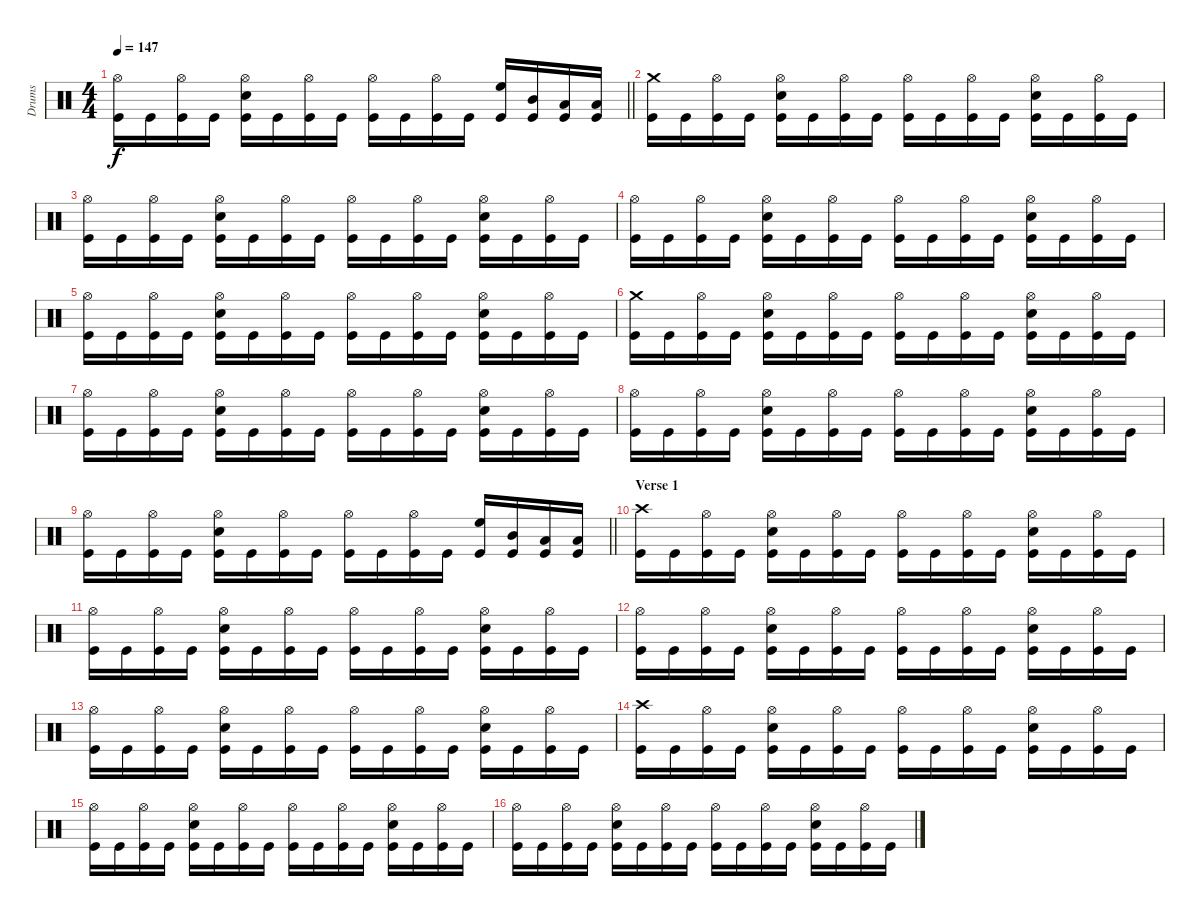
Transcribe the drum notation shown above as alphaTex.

\track ("Drums" "Drums") {instrument percussion}
\staff {score}
\articulation defaults
\ts (4 4)
\tempo 147
\clef neutral
\barLineRight lightlight
\ks c
("Hi-Hat (open)" "Kick (hit)").16{dy f} "Kick (hit)".16 ("Hi-Hat (open)" "Kick (hit)").16 "Kick (hit)".16 ("Electric Snare (hit)" "Hi-Hat (open)" "Kick (hit)").16 "Kick (hit)".16 ("Hi-Hat (open)" "Kick (hit)").16 "Kick (hit)".16 ("Hi-Hat (open)" "Kick (hit)").16 "Kick (hit)".16 ("Hi-Hat (open)" "Kick (hit)").16 "Kick (hit)".16 ("High Floor Tom (hit)" "Kick (hit)").16 ("Mid Tom (hit)" "Kick (hit)").16 ("Low Tom (hit)" "Kick (hit)").16 ("Low Floor Tom (hit)" "Kick (hit)").16 |
("Crash medium (hit)" "Kick (hit)").16 "Kick (hit)".16 ("Hi-Hat (open)" "Kick (hit)").16 "Kick (hit)".16 ("Electric Snare (hit)" "Hi-Hat (open)" "Kick (hit)").16 "Kick (hit)".16 ("Hi-Hat (open)" "Kick (hit)").16 "Kick (hit)".16 ("Hi-Hat (open)" "Kick (hit)").16 "Kick (hit)".16 ("Hi-Hat (open)" "Kick (hit)").16 "Kick (hit)".16 ("Electric Snare (hit)" "Hi-Hat (open)" "Kick (hit)").16 "Kick (hit)".16 ("Hi-Hat (open)" "Kick (hit)").16 "Kick (hit)".16 |
("Hi-Hat (open)" "Kick (hit)").16 "Kick (hit)".16 ("Hi-Hat (open)" "Kick (hit)").16 "Kick (hit)".16 ("Electric Snare (hit)" "Hi-Hat (open)" "Kick (hit)").16 "Kick (hit)".16 ("Hi-Hat (open)" "Kick (hit)").16 "Kick (hit)".16 ("Hi-Hat (open)" "Kick (hit)").16 "Kick (hit)".16 ("Hi-Hat (open)" "Kick (hit)").16 "Kick (hit)".16 ("Electric Snare (hit)" "Hi-Hat (open)" "Kick (hit)").16 "Kick (hit)".16 ("Hi-Hat (open)" "Kick (hit)").16 "Kick (hit)".16 |
("Hi-Hat (open)" "Kick (hit)").16 "Kick (hit)".16 ("Hi-Hat (open)" "Kick (hit)").16 "Kick (hit)".16 ("Electric Snare (hit)" "Hi-Hat (open)" "Kick (hit)").16 "Kick (hit)".16 ("Hi-Hat (open)" "Kick (hit)").16 "Kick (hit)".16 ("Hi-Hat (open)" "Kick (hit)").16 "Kick (hit)".16 ("Hi-Hat (open)" "Kick (hit)").16 "Kick (hit)".16 ("Electric Snare (hit)" "Hi-Hat (open)" "Kick (hit)").16 "Kick (hit)".16 ("Hi-Hat (open)" "Kick (hit)").16 "Kick (hit)".16 |
("Hi-Hat (open)" "Kick (hit)").16 "Kick (hit)".16 ("Hi-Hat (open)" "Kick (hit)").16 "Kick (hit)".16 ("Electric Snare (hit)" "Hi-Hat (open)" "Kick (hit)").16 "Kick (hit)".16 ("Hi-Hat (open)" "Kick (hit)").16 "Kick (hit)".16 ("Hi-Hat (open)" "Kick (hit)").16 "Kick (hit)".16 ("Hi-Hat (open)" "Kick (hit)").16 "Kick (hit)".16 ("Electric Snare (hit)" "Hi-Hat (open)" "Kick (hit)").16 "Kick (hit)".16 ("Hi-Hat (open)" "Kick (hit)").16 "Kick (hit)".16 |
("Crash medium (hit)" "Kick (hit)").16 "Kick (hit)".16 ("Hi-Hat (open)" "Kick (hit)").16 "Kick (hit)".16 ("Electric Snare (hit)" "Hi-Hat (open)" "Kick (hit)").16 "Kick (hit)".16 ("Hi-Hat (open)" "Kick (hit)").16 "Kick (hit)".16 ("Hi-Hat (open)" "Kick (hit)").16 "Kick (hit)".16 ("Hi-Hat (open)" "Kick (hit)").16 "Kick (hit)".16 ("Electric Snare (hit)" "Hi-Hat (open)" "Kick (hit)").16 "Kick (hit)".16 ("Hi-Hat (open)" "Kick (hit)").16 "Kick (hit)".16 |
("Hi-Hat (open)" "Kick (hit)").16 "Kick (hit)".16 ("Hi-Hat (open)" "Kick (hit)").16 "Kick (hit)".16 ("Electric Snare (hit)" "Hi-Hat (open)" "Kick (hit)").16 "Kick (hit)".16 ("Hi-Hat (open)" "Kick (hit)").16 "Kick (hit)".16 ("Hi-Hat (open)" "Kick (hit)").16 "Kick (hit)".16 ("Hi-Hat (open)" "Kick (hit)").16 "Kick (hit)".16 ("Electric Snare (hit)" "Hi-Hat (open)" "Kick (hit)").16 "Kick (hit)".16 ("Hi-Hat (open)" "Kick (hit)").16 "Kick (hit)".16 |
("Hi-Hat (open)" "Kick (hit)").16 "Kick (hit)".16 ("Hi-Hat (open)" "Kick (hit)").16 "Kick (hit)".16 ("Electric Snare (hit)" "Hi-Hat (open)" "Kick (hit)").16 "Kick (hit)".16 ("Hi-Hat (open)" "Kick (hit)").16 "Kick (hit)".16 ("Hi-Hat (open)" "Kick (hit)").16 "Kick (hit)".16 ("Hi-Hat (open)" "Kick (hit)").16 "Kick (hit)".16 ("Electric Snare (hit)" "Hi-Hat (open)" "Kick (hit)").16 "Kick (hit)".16 ("Hi-Hat (open)" "Kick (hit)").16 "Kick (hit)".16 |
\barLineRight lightlight
("Hi-Hat (open)" "Kick (hit)").16 "Kick (hit)".16 ("Hi-Hat (open)" "Kick (hit)").16 "Kick (hit)".16 ("Electric Snare (hit)" "Hi-Hat (open)" "Kick (hit)").16 "Kick (hit)".16 ("Hi-Hat (open)" "Kick (hit)").16 "Kick (hit)".16 ("Hi-Hat (open)" "Kick (hit)").16 "Kick (hit)".16 ("Hi-Hat (open)" "Kick (hit)").16 "Kick (hit)".16 ("High Floor Tom (hit)" "Kick (hit)").16 ("Mid Tom (hit)" "Kick (hit)").16 ("Low Tom (hit)" "Kick (hit)").16 ("Low Floor Tom (hit)" "Kick (hit)").16 |
\section ("" "Verse 1")
("Crash high (hit)" "Kick (hit)").16 "Kick (hit)".16 ("Hi-Hat (open)" "Kick (hit)").16 "Kick (hit)".16 ("Electric Snare (hit)" "Hi-Hat (open)" "Kick (hit)").16 "Kick (hit)".16 ("Hi-Hat (open)" "Kick (hit)").16 "Kick (hit)".16 ("Hi-Hat (open)" "Kick (hit)").16 "Kick (hit)".16 ("Hi-Hat (open)" "Kick (hit)").16 "Kick (hit)".16 ("Electric Snare (hit)" "Hi-Hat (open)" "Kick (hit)").16 "Kick (hit)".16 ("Hi-Hat (open)" "Kick (hit)").16 "Kick (hit)".16 |
("Hi-Hat (open)" "Kick (hit)").16 "Kick (hit)".16 ("Hi-Hat (open)" "Kick (hit)").16 "Kick (hit)".16 ("Electric Snare (hit)" "Hi-Hat (open)" "Kick (hit)").16 "Kick (hit)".16 ("Hi-Hat (open)" "Kick (hit)").16 "Kick (hit)".16 ("Hi-Hat (open)" "Kick (hit)").16 "Kick (hit)".16 ("Hi-Hat (open)" "Kick (hit)").16 "Kick (hit)".16 ("Electric Snare (hit)" "Hi-Hat (open)" "Kick (hit)").16 "Kick (hit)".16 ("Hi-Hat (open)" "Kick (hit)").16 "Kick (hit)".16 |
("Hi-Hat (open)" "Kick (hit)").16 "Kick (hit)".16 ("Hi-Hat (open)" "Kick (hit)").16 "Kick (hit)".16 ("Electric Snare (hit)" "Hi-Hat (open)" "Kick (hit)").16 "Kick (hit)".16 ("Hi-Hat (open)" "Kick (hit)").16 "Kick (hit)".16 ("Hi-Hat (open)" "Kick (hit)").16 "Kick (hit)".16 ("Hi-Hat (open)" "Kick (hit)").16 "Kick (hit)".16 ("Electric Snare (hit)" "Hi-Hat (open)" "Kick (hit)").16 "Kick (hit)".16 ("Hi-Hat (open)" "Kick (hit)").16 "Kick (hit)".16 |
("Hi-Hat (open)" "Kick (hit)").16 "Kick (hit)".16 ("Hi-Hat (open)" "Kick (hit)").16 "Kick (hit)".16 ("Electric Snare (hit)" "Hi-Hat (open)" "Kick (hit)").16 "Kick (hit)".16 ("Hi-Hat (open)" "Kick (hit)").16 "Kick (hit)".16 ("Hi-Hat (open)" "Kick (hit)").16 "Kick (hit)".16 ("Hi-Hat (open)" "Kick (hit)").16 "Kick (hit)".16 ("Electric Snare (hit)" "Hi-Hat (open)" "Kick (hit)").16 "Kick (hit)".16 ("Hi-Hat (open)" "Kick (hit)").16 "Kick (hit)".16 |
("Crash high (hit)" "Kick (hit)").16 "Kick (hit)".16 ("Hi-Hat (open)" "Kick (hit)").16 "Kick (hit)".16 ("Electric Snare (hit)" "Hi-Hat (open)" "Kick (hit)").16 "Kick (hit)".16 ("Hi-Hat (open)" "Kick (hit)").16 "Kick (hit)".16 ("Hi-Hat (open)" "Kick (hit)").16 "Kick (hit)".16 ("Hi-Hat (open)" "Kick (hit)").16 "Kick (hit)".16 ("Electric Snare (hit)" "Hi-Hat (open)" "Kick (hit)").16 "Kick (hit)".16 ("Hi-Hat (open)" "Kick (hit)").16 "Kick (hit)".16 |
("Hi-Hat (open)" "Kick (hit)").16 "Kick (hit)".16 ("Hi-Hat (open)" "Kick (hit)").16 "Kick (hit)".16 ("Electric Snare (hit)" "Hi-Hat (open)" "Kick (hit)").16 "Kick (hit)".16 ("Hi-Hat (open)" "Kick (hit)").16 "Kick (hit)".16 ("Hi-Hat (open)" "Kick (hit)").16 "Kick (hit)".16 ("Hi-Hat (open)" "Kick (hit)").16 "Kick (hit)".16 ("Electric Snare (hit)" "Hi-Hat (open)" "Kick (hit)").16 "Kick (hit)".16 ("Hi-Hat (open)" "Kick (hit)").16 "Kick (hit)".16 |
("Hi-Hat (open)" "Kick (hit)").16 "Kick (hit)".16 ("Hi-Hat (open)" "Kick (hit)").16 "Kick (hit)".16 ("Electric Snare (hit)" "Hi-Hat (open)" "Kick (hit)").16 "Kick (hit)".16 ("Hi-Hat (open)" "Kick (hit)").16 "Kick (hit)".16 ("Hi-Hat (open)" "Kick (hit)").16 "Kick (hit)".16 ("Hi-Hat (open)" "Kick (hit)").16 "Kick (hit)".16 ("Electric Snare (hit)" "Hi-Hat (open)" "Kick (hit)").16 "Kick (hit)".16 ("Hi-Hat (open)" "Kick (hit)").16 "Kick (hit)".16
